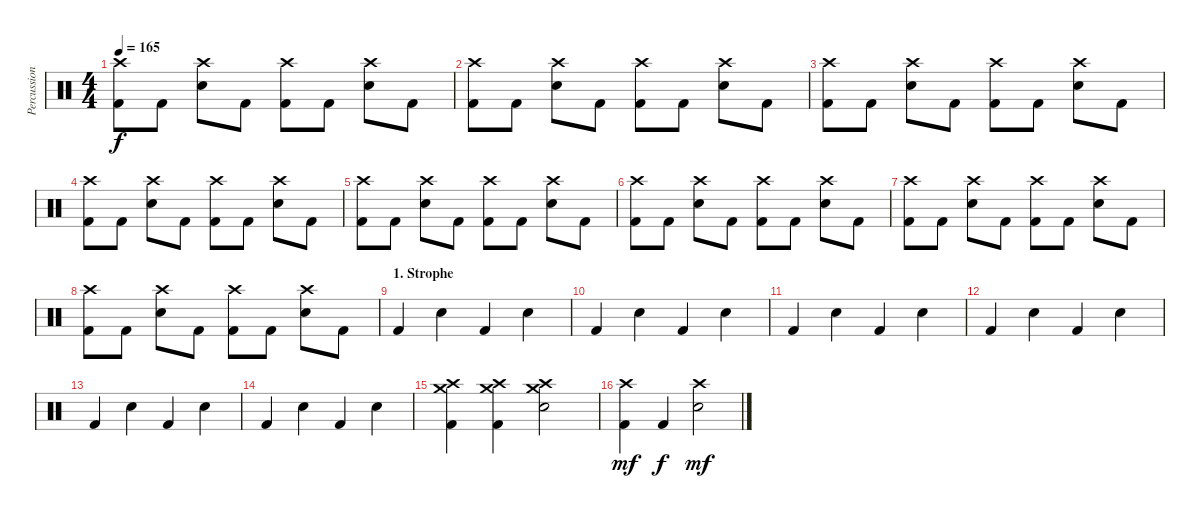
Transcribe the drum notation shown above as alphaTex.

\track ("Percussion" "Percussion") {instrument percussion}
\staff {score}
\articulation defaults
\ts (4 4)
\tempo 165
\clef neutral
\ks c
("Crash high (hit)" "Kick (hit) 2").8{dy f} "Kick (hit) 2".8 ("Crash high (hit)" "Electric Snare (hit)").8 "Kick (hit) 2".8 ("Crash high (hit)" "Kick (hit) 2").8 "Kick (hit) 2".8 ("Crash high (hit)" "Electric Snare (hit)").8 "Kick (hit) 2".8 |
("Crash high (hit)" "Kick (hit) 2").8 "Kick (hit) 2".8 ("Crash high (hit)" "Electric Snare (hit)").8 "Kick (hit) 2".8 ("Crash high (hit)" "Kick (hit) 2").8 "Kick (hit) 2".8 ("Crash high (hit)" "Electric Snare (hit)").8 "Kick (hit) 2".8 |
("Crash high (hit)" "Kick (hit) 2").8 "Kick (hit) 2".8 ("Crash high (hit)" "Electric Snare (hit)").8 "Kick (hit) 2".8 ("Crash high (hit)" "Kick (hit) 2").8 "Kick (hit) 2".8 ("Crash high (hit)" "Electric Snare (hit)").8 "Kick (hit) 2".8 |
("Crash high (hit)" "Kick (hit) 2").8 "Kick (hit) 2".8 ("Crash high (hit)" "Electric Snare (hit)").8 "Kick (hit) 2".8 ("Crash high (hit)" "Kick (hit) 2").8 "Kick (hit) 2".8 ("Crash high (hit)" "Electric Snare (hit)").8 "Kick (hit) 2".8 |
("Crash high (hit)" "Kick (hit) 2").8 "Kick (hit) 2".8 ("Crash high (hit)" "Electric Snare (hit)").8 "Kick (hit) 2".8 ("Crash high (hit)" "Kick (hit) 2").8 "Kick (hit) 2".8 ("Crash high (hit)" "Electric Snare (hit)").8 "Kick (hit) 2".8 |
("Crash high (hit)" "Kick (hit) 2").8 "Kick (hit) 2".8 ("Crash high (hit)" "Electric Snare (hit)").8 "Kick (hit) 2".8 ("Crash high (hit)" "Kick (hit) 2").8 "Kick (hit) 2".8 ("Crash high (hit)" "Electric Snare (hit)").8 "Kick (hit) 2".8 |
("Crash high (hit)" "Kick (hit) 2").8 "Kick (hit) 2".8 ("Crash high (hit)" "Electric Snare (hit)").8 "Kick (hit) 2".8 ("Crash high (hit)" "Kick (hit) 2").8 "Kick (hit) 2".8 ("Crash high (hit)" "Electric Snare (hit)").8 "Kick (hit) 2".8 |
("Crash high (hit)" "Kick (hit) 2").8 "Kick (hit) 2".8 ("Crash high (hit)" "Electric Snare (hit)").8 "Kick (hit) 2".8 ("Crash high (hit)" "Kick (hit) 2").8 "Kick (hit) 2".8 ("Crash high (hit)" "Electric Snare (hit)").8 "Kick (hit) 2".8 |
\section ("" "1. Strophe")
"Kick (hit) 2".4 "Electric Snare (hit)".4 "Kick (hit) 2".4 "Electric Snare (hit)".4 |
"Kick (hit) 2".4 "Electric Snare (hit)".4 "Kick (hit) 2".4 "Electric Snare (hit)".4 |
"Kick (hit) 2".4 "Electric Snare (hit)".4 "Kick (hit) 2".4 "Electric Snare (hit)".4 |
"Kick (hit) 2".4 "Electric Snare (hit)".4 "Kick (hit) 2".4 "Electric Snare (hit)".4 |
"Kick (hit) 2".4 "Electric Snare (hit)".4 "Kick (hit) 2".4 "Electric Snare (hit)".4 |
"Kick (hit) 2".4 "Electric Snare (hit)".4 "Kick (hit) 2".4 "Electric Snare (hit)".4 |
("Crash high (hit)" "Crash medium (hit)" "Kick (hit) 2").4 ("Crash high (hit)" "Crash medium (hit)" "Kick (hit) 2").4 ("Crash high (hit)" "Crash medium (hit)" "Electric Snare (hit)").2 |
("Crash high (hit)" "Kick (hit) 2").4{dy mf} "Kick (hit) 2".4{dy f} ("Crash high (hit)" "Electric Snare (hit)").2{dy mf}
